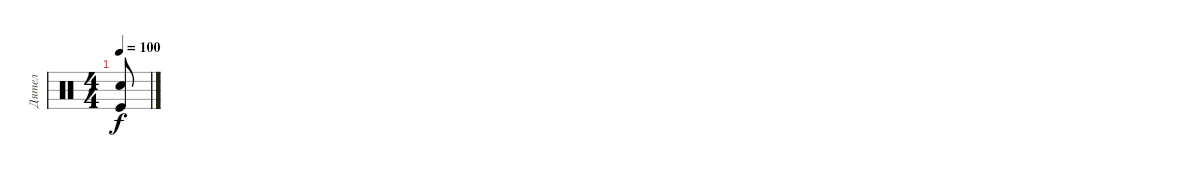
\track ("Дятел" "Дятел") {instrument percussion}
\staff {score}
\articulation defaults
\ts (4 4)
\tempo 100
\clef neutral
\ks c
("Kick (hit)" "Snare (hit) 2").8{dy f}
